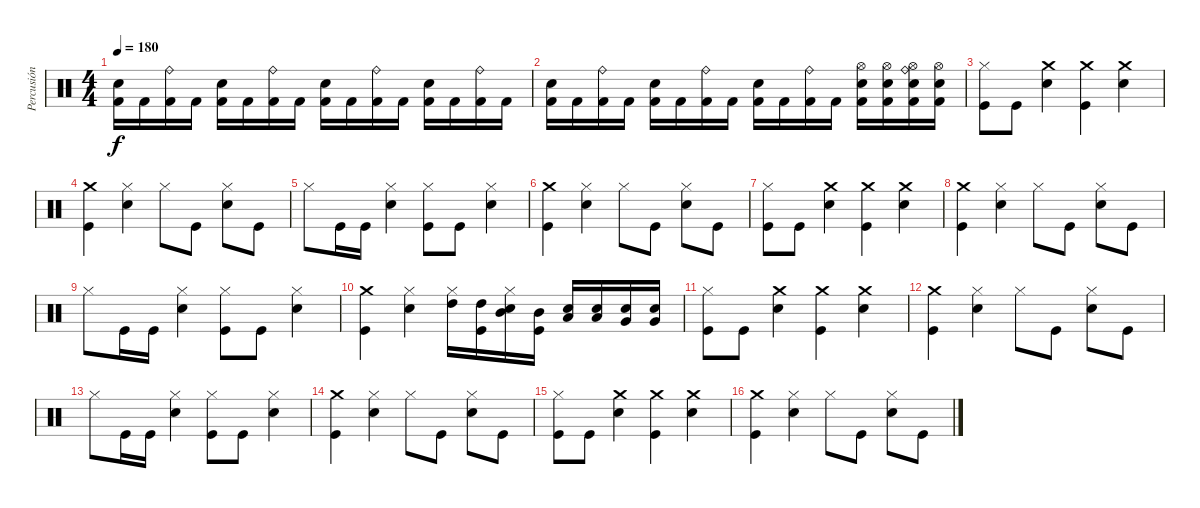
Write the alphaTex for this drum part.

\track ("Percusión" "Percusión") {instrument percussion}
\staff {score}
\articulation defaults
\ts (4 4)
\tempo 180
\clef neutral
\ks c
("Snare (hit) 2" "Kick (hit) 2").16{dy f} "Kick (hit) 2".16 ("Ride (bell)" "Kick (hit) 2").16 "Kick (hit) 2".16 ("Snare (hit) 2" "Kick (hit) 2").16 "Kick (hit) 2".16 ("Ride (bell)" "Kick (hit) 2").16 "Kick (hit) 2".16 ("Snare (hit) 2" "Kick (hit) 2").16 "Kick (hit) 2".16 ("Ride (bell)" "Kick (hit) 2").16 "Kick (hit) 2".16 ("Snare (hit) 2" "Kick (hit) 2").16 "Kick (hit) 2".16 ("Ride (bell)" "Kick (hit) 2").16 "Kick (hit) 2".16 |
("Snare (hit) 2" "Kick (hit) 2").16 "Kick (hit) 2".16 ("Ride (bell)" "Kick (hit) 2").16 "Kick (hit) 2".16 ("Snare (hit) 2" "Kick (hit) 2").16 "Kick (hit) 2".16 ("Ride (bell)" "Kick (hit) 2").16 "Kick (hit) 2".16 ("Snare (hit) 2" "Kick (hit) 2").16 "Kick (hit) 2".16 ("Ride (bell)" "Kick (hit) 2").16 "Kick (hit) 2".16 ("Snare (hit) 2" "Hi-Hat (open)" "Kick (hit) 2").16 ("Snare (hit) 2" "Hi-Hat (open)" "Kick (hit) 2").16 ("Snare (hit) 2" "Ride (bell)" "Hi-Hat (open)" "Kick (hit) 2").16 ("Snare (hit) 2" "Hi-Hat (open)" "Kick (hit) 2").16 |
("Kick (hit)" "Hi-Hat (closed)").8 "Kick (hit)".8 ("Crash medium (hit)" "Snare (hit) 2").4 ("Kick (hit)" "Crash medium (hit)").4 ("Snare (hit) 2" "Crash medium (hit)").4 |
("Kick (hit)" "Crash medium (hit)").4 ("Snare (hit) 2" "Hi-Hat (closed)").4 "Hi-Hat (closed)".8 "Kick (hit)".8 ("Snare (hit) 2" "Hi-Hat (closed)").8 "Kick (hit)".8 |
"Hi-Hat (closed)".8 "Kick (hit)".16 "Kick (hit)".16 ("Snare (hit) 2" "Hi-Hat (closed)").4 ("Kick (hit)" "Hi-Hat (closed)").8 "Kick (hit)".8 ("Snare (hit) 2" "Hi-Hat (closed)").4 |
("Kick (hit)" "Crash medium (hit)").4 ("Hi-Hat (closed)" "Snare (hit) 2").4 "Hi-Hat (closed)".8 "Kick (hit)".8 ("Snare (hit) 2" "Hi-Hat (closed)").8 "Kick (hit)".8 |
("Kick (hit)" "Hi-Hat (closed)").8 "Kick (hit)".8 ("Crash medium (hit)" "Snare (hit) 2").4 ("Kick (hit)" "Crash medium (hit)").4 ("Snare (hit) 2" "Crash medium (hit)").4 |
("Kick (hit)" "Crash medium (hit)").4 ("Snare (hit) 2" "Hi-Hat (closed)").4 "Hi-Hat (closed)".8 "Kick (hit)".8 ("Snare (hit) 2" "Hi-Hat (closed)").8 "Kick (hit)".8 |
"Hi-Hat (closed)".8 "Kick (hit)".16 "Kick (hit)".16 ("Snare (hit) 2" "Hi-Hat (closed)").4 ("Kick (hit)" "Hi-Hat (closed)").8 "Kick (hit)".8 ("Snare (hit) 2" "Hi-Hat (closed)").4 |
("Kick (hit)" "Crash medium (hit)").4 ("Hi-Hat (closed)" "Snare (hit) 2").4 ("Hi-Hat (closed)" "High Tom (hit)").16 ("Kick (hit)" "High Tom (hit)").16 ("Snare (hit) 2" "Hi-Hat (closed)" "Mid Tom (hit)").16 ("Kick (hit)" "Mid Tom (hit)").16 ("Snare (hit) 2" "Low Tom (hit)").16 ("Snare (hit) 2" "Low Tom (hit)").16 ("Snare (hit) 2" "Very Low Tom (hit)").16 ("Snare (hit) 2" "Very Low Tom (hit)").16 |
("Kick (hit)" "Hi-Hat (closed)").8 "Kick (hit)".8 ("Crash medium (hit)" "Snare (hit) 2").4 ("Kick (hit)" "Crash medium (hit)").4 ("Snare (hit) 2" "Crash medium (hit)").4 |
("Kick (hit)" "Crash medium (hit)").4 ("Snare (hit) 2" "Hi-Hat (closed)").4 "Hi-Hat (closed)".8 "Kick (hit)".8 ("Snare (hit) 2" "Hi-Hat (closed)").8 "Kick (hit)".8 |
"Hi-Hat (closed)".8 "Kick (hit)".16 "Kick (hit)".16 ("Snare (hit) 2" "Hi-Hat (closed)").4 ("Kick (hit)" "Hi-Hat (closed)").8 "Kick (hit)".8 ("Snare (hit) 2" "Hi-Hat (closed)").4 |
("Kick (hit)" "Crash medium (hit)").4 ("Hi-Hat (closed)" "Snare (hit) 2").4 "Hi-Hat (closed)".8 "Kick (hit)".8 ("Snare (hit) 2" "Hi-Hat (closed)").8 "Kick (hit)".8 |
("Kick (hit)" "Hi-Hat (closed)").8 "Kick (hit)".8 ("Crash medium (hit)" "Snare (hit) 2").4 ("Kick (hit)" "Crash medium (hit)").4 ("Snare (hit) 2" "Crash medium (hit)").4 |
("Kick (hit)" "Crash medium (hit)").4 ("Snare (hit) 2" "Hi-Hat (closed)").4 "Hi-Hat (closed)".8 "Kick (hit)".8 ("Snare (hit) 2" "Hi-Hat (closed)").8 "Kick (hit)".8
